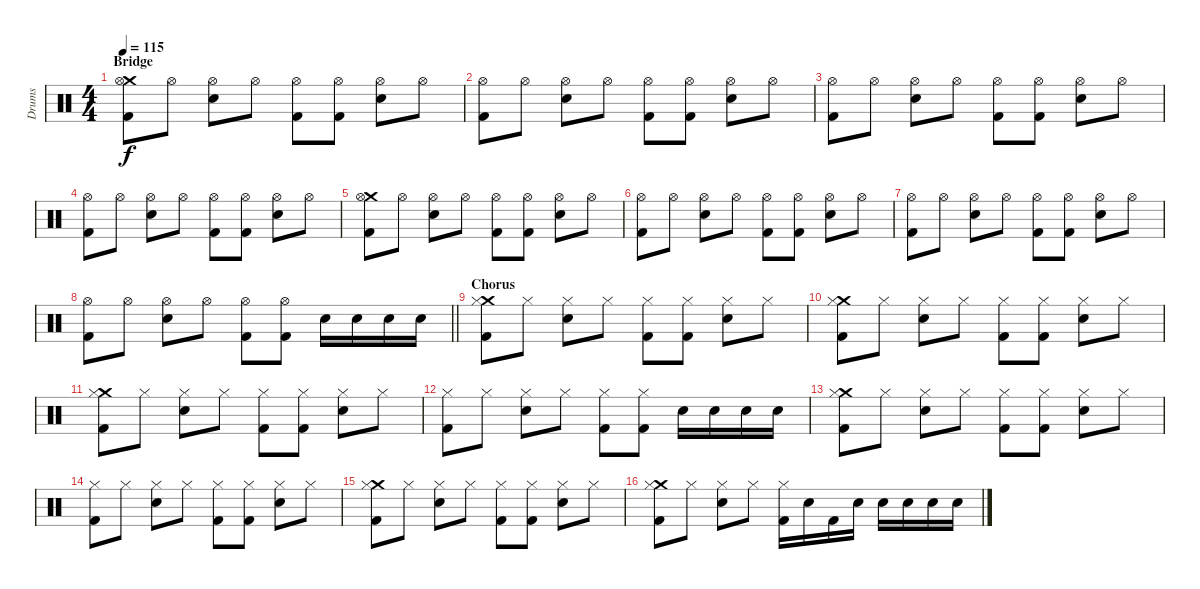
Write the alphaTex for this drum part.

\track ("Drums" "Drums") {instrument percussion}
\staff {score}
\articulation defaults
\ts (4 4)
\section ("" "Bridge")
\tempo 115
\clef neutral
\ks c
("Kick (hit) 2" "Crash medium (hit)" "Hi-Hat (open)").8{dy f} "Hi-Hat (open)".8 ("Hi-Hat (open)" "Electric Snare (hit)").8 "Hi-Hat (open)".8 ("Kick (hit) 2" "Hi-Hat (open)").8 ("Kick (hit) 2" "Hi-Hat (open)").8 ("Hi-Hat (open)" "Electric Snare (hit)").8 "Hi-Hat (open)".8 |
("Kick (hit) 2" "Hi-Hat (open)").8 "Hi-Hat (open)".8 ("Hi-Hat (open)" "Electric Snare (hit)").8 "Hi-Hat (open)".8 ("Kick (hit) 2" "Hi-Hat (open)").8 ("Kick (hit) 2" "Hi-Hat (open)").8 ("Hi-Hat (open)" "Electric Snare (hit)").8 "Hi-Hat (open)".8 |
("Kick (hit) 2" "Hi-Hat (open)").8 "Hi-Hat (open)".8 ("Hi-Hat (open)" "Electric Snare (hit)").8 "Hi-Hat (open)".8 ("Kick (hit) 2" "Hi-Hat (open)").8 ("Kick (hit) 2" "Hi-Hat (open)").8 ("Hi-Hat (open)" "Electric Snare (hit)").8 "Hi-Hat (open)".8 |
("Kick (hit) 2" "Hi-Hat (open)").8 "Hi-Hat (open)".8 ("Hi-Hat (open)" "Electric Snare (hit)").8 "Hi-Hat (open)".8 ("Kick (hit) 2" "Hi-Hat (open)").8 ("Kick (hit) 2" "Hi-Hat (open)").8 ("Hi-Hat (open)" "Snare (hit) 2").8 "Hi-Hat (open)".8 |
("Kick (hit) 2" "Crash medium (hit)" "Hi-Hat (open)").8 "Hi-Hat (open)".8 ("Hi-Hat (open)" "Electric Snare (hit)").8 "Hi-Hat (open)".8 ("Kick (hit) 2" "Hi-Hat (open)").8 ("Kick (hit) 2" "Hi-Hat (open)").8 ("Hi-Hat (open)" "Electric Snare (hit)").8 "Hi-Hat (open)".8 |
("Kick (hit) 2" "Hi-Hat (open)").8 "Hi-Hat (open)".8 ("Hi-Hat (open)" "Electric Snare (hit)").8 "Hi-Hat (open)".8 ("Kick (hit) 2" "Hi-Hat (open)").8 ("Kick (hit) 2" "Hi-Hat (open)").8 ("Hi-Hat (open)" "Electric Snare (hit)").8 "Hi-Hat (open)".8 |
("Kick (hit) 2" "Hi-Hat (open)").8 "Hi-Hat (open)".8 ("Hi-Hat (open)" "Electric Snare (hit)").8 "Hi-Hat (open)".8 ("Kick (hit) 2" "Hi-Hat (open)").8 ("Kick (hit) 2" "Hi-Hat (open)").8 ("Hi-Hat (open)" "Electric Snare (hit)").8 "Hi-Hat (open)".8 |
\barLineRight lightlight
("Kick (hit) 2" "Hi-Hat (open)").8 "Hi-Hat (open)".8 ("Hi-Hat (open)" "Electric Snare (hit)").8 "Hi-Hat (open)".8 ("Kick (hit) 2" "Hi-Hat (open)").8 ("Kick (hit) 2" "Hi-Hat (open)").8 "Electric Snare (hit)".16 "Electric Snare (hit)".16 "Electric Snare (hit)".16 "Electric Snare (hit)".16 |
\section ("" "Chorus")
("Kick (hit) 2" "Crash medium (hit)" "Hi-Hat (closed)").8 "Hi-Hat (closed)".8 ("Hi-Hat (closed)" "Electric Snare (hit)").8 "Hi-Hat (closed)".8 ("Kick (hit) 2" "Hi-Hat (closed)").8 ("Kick (hit) 2" "Hi-Hat (closed)").8 ("Hi-Hat (closed)" "Electric Snare (hit)").8 "Hi-Hat (closed)".8 |
("Kick (hit) 2" "Crash medium (hit)" "Hi-Hat (closed)").8 "Hi-Hat (closed)".8 ("Hi-Hat (closed)" "Electric Snare (hit)").8 "Hi-Hat (closed)".8 ("Kick (hit) 2" "Hi-Hat (closed)").8 ("Kick (hit) 2" "Hi-Hat (closed)").8 ("Hi-Hat (closed)" "Electric Snare (hit)").8 "Hi-Hat (closed)".8 |
("Kick (hit) 2" "Crash medium (hit)" "Hi-Hat (closed)").8 "Hi-Hat (closed)".8 ("Hi-Hat (closed)" "Electric Snare (hit)").8 "Hi-Hat (closed)".8 ("Kick (hit) 2" "Hi-Hat (closed)").8 ("Kick (hit) 2" "Hi-Hat (closed)").8 ("Hi-Hat (closed)" "Electric Snare (hit)").8 "Hi-Hat (closed)".8 |
("Kick (hit) 2" "Hi-Hat (closed)").8 "Hi-Hat (closed)".8 ("Hi-Hat (closed)" "Electric Snare (hit)").8 "Hi-Hat (closed)".8 ("Kick (hit) 2" "Hi-Hat (closed)").8 ("Kick (hit) 2" "Hi-Hat (closed)").8 "Electric Snare (hit)".16 "Electric Snare (hit)".16 "Electric Snare (hit)".16 "Electric Snare (hit)".16 |
("Kick (hit) 2" "Crash medium (hit)" "Hi-Hat (closed)").8 "Hi-Hat (closed)".8 ("Hi-Hat (closed)" "Electric Snare (hit)").8 "Hi-Hat (closed)".8 ("Kick (hit) 2" "Hi-Hat (closed)").8 ("Kick (hit) 2" "Hi-Hat (closed)").8 ("Hi-Hat (closed)" "Electric Snare (hit)").8 "Hi-Hat (closed)".8 |
("Kick (hit) 2" "Hi-Hat (closed)").8 "Hi-Hat (closed)".8 ("Hi-Hat (closed)" "Electric Snare (hit)").8 "Hi-Hat (closed)".8 ("Kick (hit) 2" "Hi-Hat (closed)").8 ("Kick (hit) 2" "Hi-Hat (closed)").8 ("Hi-Hat (closed)" "Electric Snare (hit)").8 "Hi-Hat (closed)".8 |
("Kick (hit) 2" "Crash medium (hit)" "Hi-Hat (closed)").8 "Hi-Hat (closed)".8 ("Hi-Hat (closed)" "Electric Snare (hit)").8 "Hi-Hat (closed)".8 ("Kick (hit) 2" "Hi-Hat (closed)").8 ("Kick (hit) 2" "Hi-Hat (closed)").8 ("Hi-Hat (closed)" "Electric Snare (hit)").8 "Hi-Hat (closed)".8 |
("Kick (hit) 2" "Crash medium (hit)" "Hi-Hat (closed)").8 "Hi-Hat (closed)".8 ("Hi-Hat (closed)" "Electric Snare (hit)").8 "Hi-Hat (closed)".8 ("Kick (hit) 2" "Hi-Hat (closed)").16 "Electric Snare (hit)".16 "Kick (hit) 2".16 "Electric Snare (hit)".16 "Electric Snare (hit)".16 "Electric Snare (hit)".16 "Electric Snare (hit)".16 "Electric Snare (hit)".16
